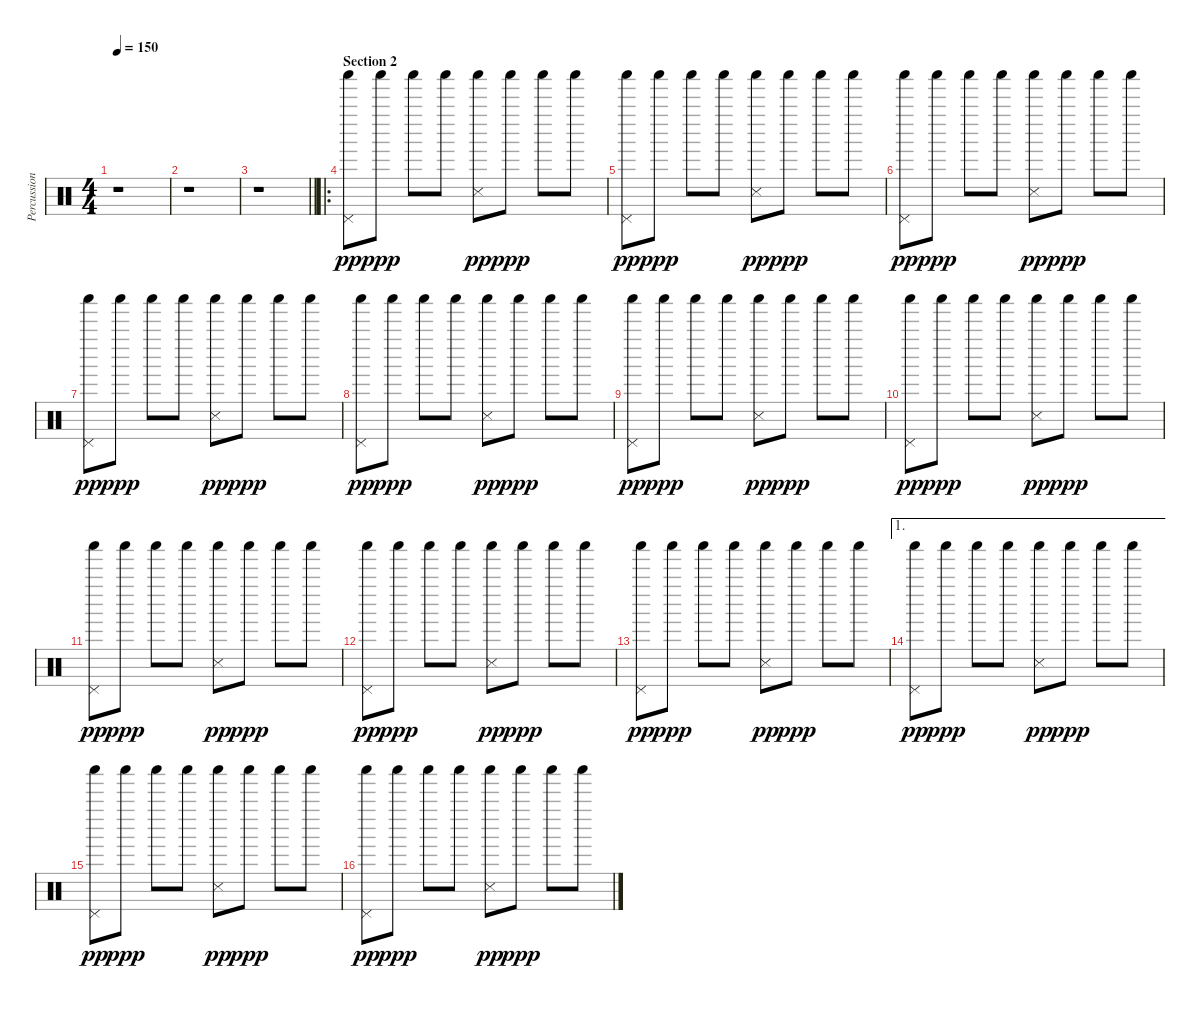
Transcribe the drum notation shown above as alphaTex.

\track ("Percussion" "Percussion") {instrument percussion}
\staff {score}
\articulation defaults
\ts (4 4)
\tempo 150
\clef neutral
\ks c
r.1{dy pp} |
r.1 |
\barLineRight lightlight
r.1 |
\ro
\section ("" "Section 2")
("Pedal Hi-Hat (hit)" "Shaker (hit)").8 "Shaker (hit)".8{dy ppp} "Shaker (hit)".8 "Shaker (hit)".8 ("Snare (side stick) 3" "Shaker (hit)").8{dy pp} "Shaker (hit)".8{dy ppp} "Shaker (hit)".8 "Shaker (hit)".8 |
("Pedal Hi-Hat (hit)" "Shaker (hit)").8{dy pp} "Shaker (hit)".8{dy ppp} "Shaker (hit)".8 "Shaker (hit)".8 ("Snare (side stick) 3" "Shaker (hit)").8{dy pp} "Shaker (hit)".8{dy ppp} "Shaker (hit)".8 "Shaker (hit)".8 |
("Pedal Hi-Hat (hit)" "Shaker (hit)").8{dy pp} "Shaker (hit)".8{dy ppp} "Shaker (hit)".8 "Shaker (hit)".8 ("Snare (side stick) 3" "Shaker (hit)").8{dy pp} "Shaker (hit)".8{dy ppp} "Shaker (hit)".8 "Shaker (hit)".8 |
("Pedal Hi-Hat (hit)" "Shaker (hit)").8{dy pp} "Shaker (hit)".8{dy ppp} "Shaker (hit)".8 "Shaker (hit)".8 ("Snare (side stick) 3" "Shaker (hit)").8{dy pp} "Shaker (hit)".8{dy ppp} "Shaker (hit)".8 "Shaker (hit)".8 |
("Pedal Hi-Hat (hit)" "Shaker (hit)").8{dy pp} "Shaker (hit)".8{dy ppp} "Shaker (hit)".8 "Shaker (hit)".8 ("Snare (side stick) 3" "Shaker (hit)").8{dy pp} "Shaker (hit)".8{dy ppp} "Shaker (hit)".8 "Shaker (hit)".8 |
("Pedal Hi-Hat (hit)" "Shaker (hit)").8{dy pp} "Shaker (hit)".8{dy ppp} "Shaker (hit)".8 "Shaker (hit)".8 ("Snare (side stick) 3" "Shaker (hit)").8{dy pp} "Shaker (hit)".8{dy ppp} "Shaker (hit)".8 "Shaker (hit)".8 |
("Pedal Hi-Hat (hit)" "Shaker (hit)").8{dy pp} "Shaker (hit)".8{dy ppp} "Shaker (hit)".8 "Shaker (hit)".8 ("Snare (side stick) 3" "Shaker (hit)").8{dy pp} "Shaker (hit)".8{dy ppp} "Shaker (hit)".8 "Shaker (hit)".8 |
("Pedal Hi-Hat (hit)" "Shaker (hit)").8{dy pp} "Shaker (hit)".8{dy ppp} "Shaker (hit)".8 "Shaker (hit)".8 ("Snare (side stick) 3" "Shaker (hit)").8{dy pp} "Shaker (hit)".8{dy ppp} "Shaker (hit)".8 "Shaker (hit)".8 |
("Pedal Hi-Hat (hit)" "Shaker (hit)").8{dy pp} "Shaker (hit)".8{dy ppp} "Shaker (hit)".8 "Shaker (hit)".8 ("Snare (side stick) 3" "Shaker (hit)").8{dy pp} "Shaker (hit)".8{dy ppp} "Shaker (hit)".8 "Shaker (hit)".8 |
("Pedal Hi-Hat (hit)" "Shaker (hit)").8{dy pp} "Shaker (hit)".8{dy ppp} "Shaker (hit)".8 "Shaker (hit)".8 ("Snare (side stick) 3" "Shaker (hit)").8{dy pp} "Shaker (hit)".8{dy ppp} "Shaker (hit)".8 "Shaker (hit)".8 |
\ae 1
("Pedal Hi-Hat (hit)" "Shaker (hit)").8{dy pp} "Shaker (hit)".8{dy ppp} "Shaker (hit)".8 "Shaker (hit)".8 ("Snare (side stick) 3" "Shaker (hit)").8{dy pp} "Shaker (hit)".8{dy ppp} "Shaker (hit)".8 "Shaker (hit)".8 |
("Pedal Hi-Hat (hit)" "Shaker (hit)").8{dy pp} "Shaker (hit)".8{dy ppp} "Shaker (hit)".8 "Shaker (hit)".8 ("Snare (side stick) 3" "Shaker (hit)").8{dy pp} "Shaker (hit)".8{dy ppp} "Shaker (hit)".8 "Shaker (hit)".8 |
("Pedal Hi-Hat (hit)" "Shaker (hit)").8{dy pp} "Shaker (hit)".8{dy ppp} "Shaker (hit)".8 "Shaker (hit)".8 ("Snare (side stick) 3" "Shaker (hit)").8{dy pp} "Shaker (hit)".8{dy ppp} "Shaker (hit)".8 "Shaker (hit)".8
